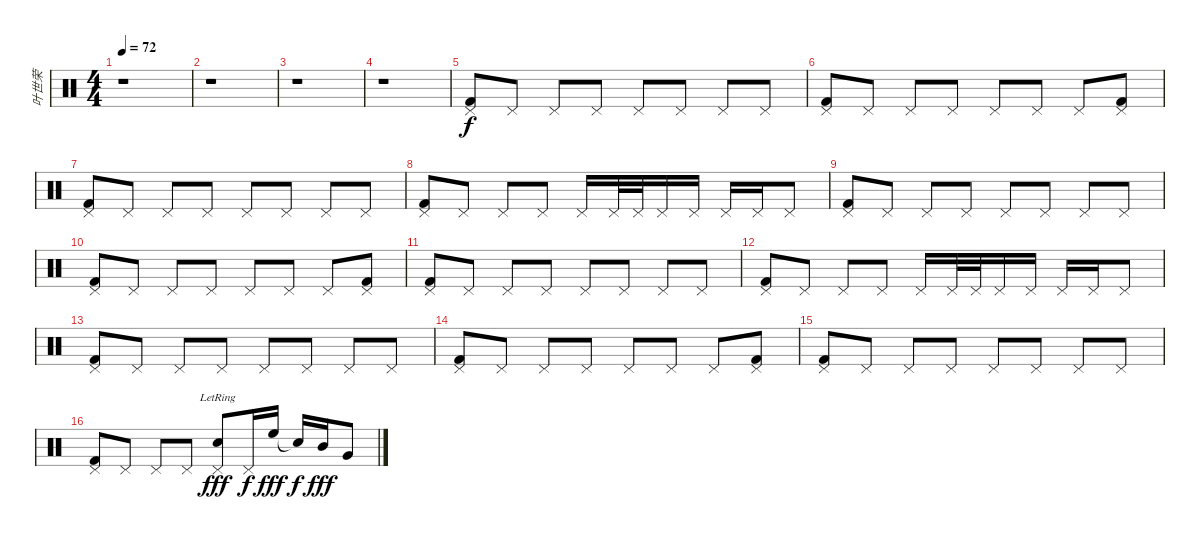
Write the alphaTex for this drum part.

\track ("叶世荣" "叶世荣") {instrument percussion}
\staff {score}
\articulation defaults
\ts (4 4)
\tempo 72
\clef neutral
\ks c
r.1{dy f} |
r.1 |
r.1 |
r.1 |
("Pedal Hi-Hat (hit)" "Kick (hit) 2").8 "Pedal Hi-Hat (hit)".8 "Pedal Hi-Hat (hit)".8 "Pedal Hi-Hat (hit)".8 "Pedal Hi-Hat (hit)".8 "Pedal Hi-Hat (hit)".8 "Pedal Hi-Hat (hit)".8 "Pedal Hi-Hat (hit)".8 |
("Pedal Hi-Hat (hit)" "Kick (hit) 2").8 "Pedal Hi-Hat (hit)".8 "Pedal Hi-Hat (hit)".8 "Pedal Hi-Hat (hit)".8 "Pedal Hi-Hat (hit)".8 "Pedal Hi-Hat (hit)".8 "Pedal Hi-Hat (hit)".8 ("Pedal Hi-Hat (hit)" "Kick (hit) 2").8 |
("Pedal Hi-Hat (hit)" "Kick (hit) 2").8 "Pedal Hi-Hat (hit)".8 "Pedal Hi-Hat (hit)".8 "Pedal Hi-Hat (hit)".8 "Pedal Hi-Hat (hit)".8 "Pedal Hi-Hat (hit)".8 "Pedal Hi-Hat (hit)".8 "Pedal Hi-Hat (hit)".8 |
("Pedal Hi-Hat (hit)" "Kick (hit) 2").8 "Pedal Hi-Hat (hit)".8 "Pedal Hi-Hat (hit)".8 "Pedal Hi-Hat (hit)".8 "Pedal Hi-Hat (hit)".16 "Pedal Hi-Hat (hit)".32 "Pedal Hi-Hat (hit)".32 "Pedal Hi-Hat (hit)".16 "Pedal Hi-Hat (hit)".16 "Pedal Hi-Hat (hit)".16 "Pedal Hi-Hat (hit)".16 "Pedal Hi-Hat (hit)".8 |
("Pedal Hi-Hat (hit)" "Kick (hit) 2").8 "Pedal Hi-Hat (hit)".8 "Pedal Hi-Hat (hit)".8 "Pedal Hi-Hat (hit)".8 "Pedal Hi-Hat (hit)".8 "Pedal Hi-Hat (hit)".8 "Pedal Hi-Hat (hit)".8 "Pedal Hi-Hat (hit)".8 |
("Pedal Hi-Hat (hit)" "Kick (hit) 2").8 "Pedal Hi-Hat (hit)".8 "Pedal Hi-Hat (hit)".8 "Pedal Hi-Hat (hit)".8 "Pedal Hi-Hat (hit)".8 "Pedal Hi-Hat (hit)".8 "Pedal Hi-Hat (hit)".8 ("Pedal Hi-Hat (hit)" "Kick (hit) 2").8 |
("Pedal Hi-Hat (hit)" "Kick (hit) 2").8 "Pedal Hi-Hat (hit)".8 "Pedal Hi-Hat (hit)".8 "Pedal Hi-Hat (hit)".8 "Pedal Hi-Hat (hit)".8 "Pedal Hi-Hat (hit)".8 "Pedal Hi-Hat (hit)".8 "Pedal Hi-Hat (hit)".8 |
("Pedal Hi-Hat (hit)" "Kick (hit) 2").8 "Pedal Hi-Hat (hit)".8 "Pedal Hi-Hat (hit)".8 "Pedal Hi-Hat (hit)".8 "Pedal Hi-Hat (hit)".16 "Pedal Hi-Hat (hit)".32 "Pedal Hi-Hat (hit)".32 "Pedal Hi-Hat (hit)".16 "Pedal Hi-Hat (hit)".16 "Pedal Hi-Hat (hit)".16 "Pedal Hi-Hat (hit)".16 "Pedal Hi-Hat (hit)".8 |
("Pedal Hi-Hat (hit)" "Kick (hit) 2").8 "Pedal Hi-Hat (hit)".8 "Pedal Hi-Hat (hit)".8 "Pedal Hi-Hat (hit)".8 "Pedal Hi-Hat (hit)".8 "Pedal Hi-Hat (hit)".8 "Pedal Hi-Hat (hit)".8 "Pedal Hi-Hat (hit)".8 |
("Pedal Hi-Hat (hit)" "Kick (hit) 2").8 "Pedal Hi-Hat (hit)".8 "Pedal Hi-Hat (hit)".8 "Pedal Hi-Hat (hit)".8 "Pedal Hi-Hat (hit)".8 "Pedal Hi-Hat (hit)".8 "Pedal Hi-Hat (hit)".8 ("Pedal Hi-Hat (hit)" "Kick (hit) 2").8 |
("Pedal Hi-Hat (hit)" "Kick (hit) 2").8 "Pedal Hi-Hat (hit)".8 "Pedal Hi-Hat (hit)".8 "Pedal Hi-Hat (hit)".8 "Pedal Hi-Hat (hit)".8 "Pedal Hi-Hat (hit)".8 "Pedal Hi-Hat (hit)".8 "Pedal Hi-Hat (hit)".8 |
("Pedal Hi-Hat (hit)" "Kick (hit) 2").8 "Pedal Hi-Hat (hit)".8 "Pedal Hi-Hat (hit)".8 "Pedal Hi-Hat (hit)".8 ("Pedal Hi-Hat (hit)" "Electric Snare (hit)"{lr}).8{dy fff} "Pedal Hi-Hat (hit)".16{dy f} "High Floor Tom (hit)".16{dy fff} "Snare (hit)"{t}.16{dy f} "Mid Tom (hit)".16{dy fff} "Very Low Tom (hit)".8
